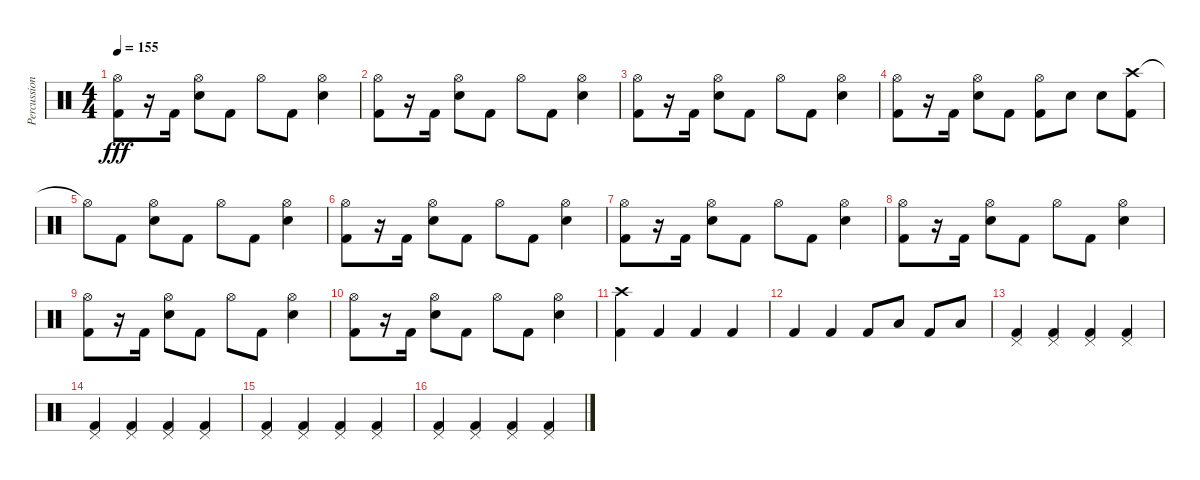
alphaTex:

\track ("Percussion" "Percussion") {instrument percussion}
\staff {score}
\articulation defaults
\ts (4 4)
\tempo 155
\clef neutral
\ks c
("Hi-Hat (open)" "Kick (hit) 2").8{dy fff} r.16 "Kick (hit) 2".16 ("Hi-Hat (open)" "Electric Snare (hit)").8 "Kick (hit) 2".8 "Hi-Hat (open)".8 "Kick (hit) 2".8 ("Hi-Hat (open)" "Electric Snare (hit)").4 |
("Hi-Hat (open)" "Kick (hit) 2").8 r.16 "Kick (hit) 2".16 ("Hi-Hat (open)" "Electric Snare (hit)").8 "Kick (hit) 2".8 "Hi-Hat (open)".8 "Kick (hit) 2".8 ("Hi-Hat (open)" "Electric Snare (hit)").4 |
("Hi-Hat (open)" "Kick (hit) 2").8 r.16 "Kick (hit) 2".16 ("Hi-Hat (open)" "Electric Snare (hit)").8 "Kick (hit) 2".8 "Hi-Hat (open)".8 "Kick (hit) 2".8 ("Hi-Hat (open)" "Electric Snare (hit)").4 |
("Hi-Hat (open)" "Kick (hit) 2").8 r.16 "Kick (hit) 2".16 ("Hi-Hat (open)" "Electric Snare (hit)").8 "Kick (hit) 2".8 ("Hi-Hat (open)" "Kick (hit) 2").8 "Electric Snare (hit)".8 "Electric Snare (hit)".8 ("Crash high (hit)" "Kick (hit) 2").8 |
"Hi-Hat (open)"{t}.8 "Kick (hit) 2".8 ("Hi-Hat (open)" "Electric Snare (hit)").8 "Kick (hit) 2".8 "Hi-Hat (open)".8 "Kick (hit) 2".8 ("Hi-Hat (open)" "Electric Snare (hit)").4 |
("Hi-Hat (open)" "Kick (hit) 2").8 r.16 "Kick (hit) 2".16 ("Hi-Hat (open)" "Electric Snare (hit)").8 "Kick (hit) 2".8 "Hi-Hat (open)".8 "Kick (hit) 2".8 ("Hi-Hat (open)" "Electric Snare (hit)").4 |
("Hi-Hat (open)" "Kick (hit) 2").8 r.16 "Kick (hit) 2".16 ("Hi-Hat (open)" "Electric Snare (hit)").8 "Kick (hit) 2".8 "Hi-Hat (open)".8 "Kick (hit) 2".8 ("Hi-Hat (open)" "Electric Snare (hit)").4 |
("Hi-Hat (open)" "Kick (hit) 2").8 r.16 "Kick (hit) 2".16 ("Hi-Hat (open)" "Electric Snare (hit)").8 "Kick (hit) 2".8 "Hi-Hat (open)".8 "Kick (hit) 2".8 ("Hi-Hat (open)" "Electric Snare (hit)").4 |
("Hi-Hat (open)" "Kick (hit) 2").8 r.16 "Kick (hit) 2".16 ("Hi-Hat (open)" "Electric Snare (hit)").8 "Kick (hit) 2".8 "Hi-Hat (open)".8 "Kick (hit) 2".8 ("Hi-Hat (open)" "Electric Snare (hit)").4 |
("Hi-Hat (open)" "Kick (hit) 2").8 r.16 "Kick (hit) 2".16 ("Hi-Hat (open)" "Electric Snare (hit)").8 "Kick (hit) 2".8 "Hi-Hat (open)".8 "Kick (hit) 2".8 ("Hi-Hat (open)" "Electric Snare (hit)").4 |
("Crash high (hit)" "Kick (hit) 2").4 "Kick (hit) 2".4 "Kick (hit) 2".4 "Kick (hit) 2".4 |
"Kick (hit) 2".4 "Kick (hit) 2".4 "Kick (hit) 2".8 "Low Tom (hit)".8 "Kick (hit) 2".8 "Low Floor Tom (hit)".8 |
("Pedal Hi-Hat (hit)" "Kick (hit) 2").4 ("Pedal Hi-Hat (hit)" "Kick (hit) 2").4 ("Pedal Hi-Hat (hit)" "Kick (hit) 2").4 ("Pedal Hi-Hat (hit)" "Kick (hit) 2").4 |
("Pedal Hi-Hat (hit)" "Kick (hit) 2").4 ("Pedal Hi-Hat (hit)" "Kick (hit) 2").4 ("Pedal Hi-Hat (hit)" "Kick (hit) 2").4 ("Pedal Hi-Hat (hit)" "Kick (hit) 2").4 |
("Pedal Hi-Hat (hit)" "Kick (hit) 2").4 ("Pedal Hi-Hat (hit)" "Kick (hit) 2").4 ("Pedal Hi-Hat (hit)" "Kick (hit) 2").4 ("Pedal Hi-Hat (hit)" "Kick (hit) 2").4 |
("Pedal Hi-Hat (hit)" "Kick (hit) 2").4 ("Pedal Hi-Hat (hit)" "Kick (hit) 2").4 ("Pedal Hi-Hat (hit)" "Kick (hit) 2").4 ("Pedal Hi-Hat (hit)" "Kick (hit) 2").4
